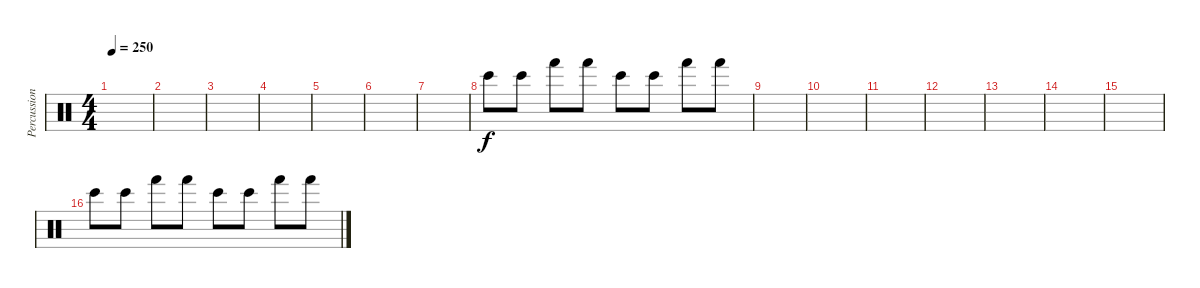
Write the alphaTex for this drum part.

\track ("Percussion" "Percussion") {instrument percussion}
\staff {score}
\articulation defaults
\ts (4 4)
\tempo 250
\clef neutral
\ks c
|
|
|
|
|
|
|
"Bongo High (hit)".8 "Bongo High (hit)".8 "Hand (hit)".8 "Hand (hit)".8 "Bongo High (hit)".8 "Bongo High (hit)".8 "Hand (hit)".8 "Hand (hit)".8 |
|
|
|
|
|
|
|
"Bongo High (hit)".8 "Bongo High (hit)".8 "Hand (hit)".8 "Hand (hit)".8 "Bongo High (hit)".8 "Bongo High (hit)".8 "Hand (hit)".8 "Hand (hit)".8
